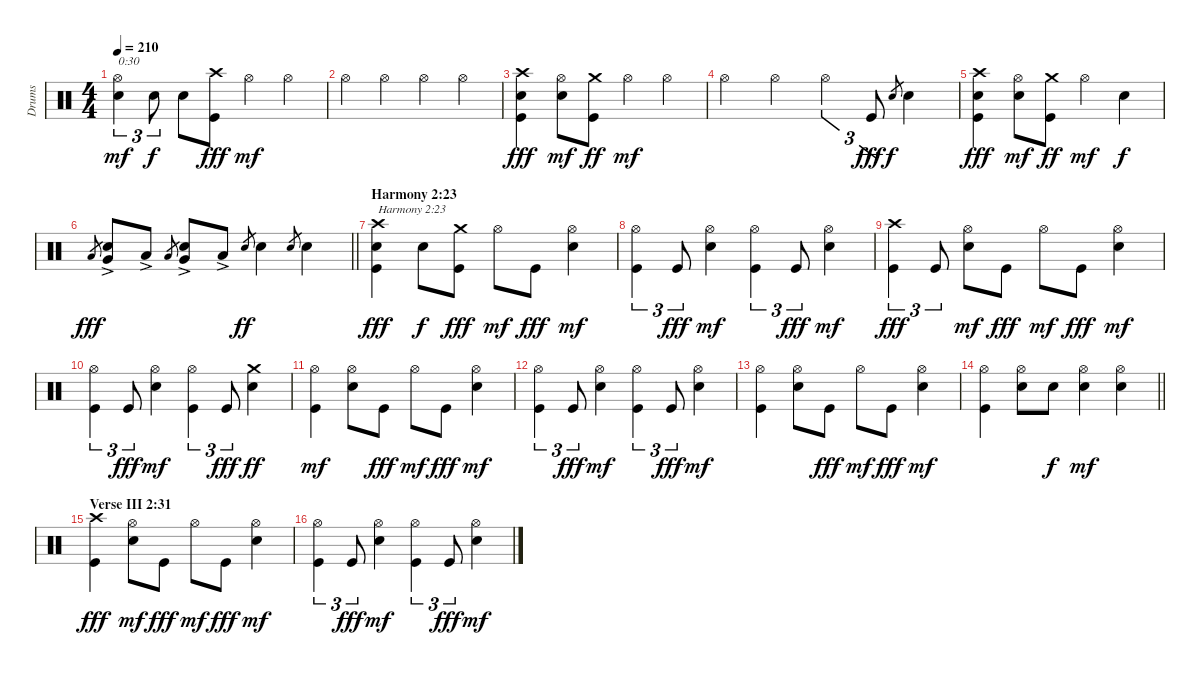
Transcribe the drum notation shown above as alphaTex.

\track ("Drums" "Drums") {instrument percussion}
\staff {score}
\articulation defaults
\ts (4 4)
\tempo 210
\clef neutral
\ks c
("Electric Snare (hit)" "Hi-Hat (open)").4{tu (3 2) txt "0:30" dy mf} "Electric Snare (hit)".8{tu (3 2) dy f} "Electric Snare (hit)".8 ("Kick (hit)" "Crash high (hit)").8{dy fff} "Hi-Hat (open)".4{dy mf} "Hi-Hat (open)".4 |
"Hi-Hat (open)".4 "Hi-Hat (open)".4 "Hi-Hat (open)".4 "Hi-Hat (open)".4 |
("Kick (hit)" "Electric Snare (hit)" "Crash high (hit)").4{dy fff} ("Electric Snare (hit)" "Hi-Hat (open)").8{dy mf} ("Kick (hit)" "Crash medium (hit)").8{dy ff} "Hi-Hat (open)".4{dy mf} "Hi-Hat (open)".4 |
"Hi-Hat (open)".4 "Hi-Hat (open)".4 "Hi-Hat (open)".4{tu (3 2)} "Kick (hit)".8{tu (3 2) dy fff} "Electric Snare (hit)".8{gr dy f} "Electric Snare (hit)".4 |
("Kick (hit)" "Electric Snare (hit)" "Crash high (hit)").4{dy fff} ("Electric Snare (hit)" "Hi-Hat (open)").8{dy mf} ("Kick (hit)" "Crash medium (hit)").8{dy ff} "Hi-Hat (open)".4{dy mf} "Electric Snare (hit)".4{dy f} |
\barLineRight lightlight "Low Tom (hit)".8{gr dy fff}
("Very Low Tom (hit)"{ac} "Electric Snare (hit)").8 "Low Tom (hit)"{ac}.8 "Low Tom (hit)".8{gr} ("Very Low Tom (hit)"{ac} "Electric Snare (hit)").8 "Low Tom (hit)"{ac}.8 "Electric Snare (hit)".8{gr dy ff} "Electric Snare (hit)".4 "Electric Snare (hit)".8{gr} "Electric Snare (hit)".4 |
\section ("" "Harmony 2:23")
("Kick (hit)" "Electric Snare (hit)" "Crash high (hit)").4{txt "Harmony 2:23" dy fff} "Electric Snare (hit)".8{dy f} ("Kick (hit)" "Crash medium (hit)").8{dy fff} "Hi-Hat (open)".8{dy mf} "Kick (hit)".8{dy fff} ("Electric Snare (hit)" "Hi-Hat (open)").4{dy mf} |
("Kick (hit)" "Hi-Hat (open)").4{tu (3 2)} "Kick (hit)".8{tu (3 2) dy fff} ("Electric Snare (hit)" "Hi-Hat (open)").4{dy mf} ("Kick (hit)" "Hi-Hat (open)").4{tu (3 2)} "Kick (hit)".8{tu (3 2) dy fff} ("Electric Snare (hit)" "Hi-Hat (open)").4{dy mf} |
("Kick (hit)" "Crash high (hit)").4{tu (3 2) dy fff} "Kick (hit)".8{tu (3 2)} ("Electric Snare (hit)" "Hi-Hat (open)").8{dy mf} "Kick (hit)".8{dy fff} "Hi-Hat (open)".8{dy mf} "Kick (hit)".8{dy fff} ("Electric Snare (hit)" "Hi-Hat (open)").4{dy mf} |
("Kick (hit)" "Hi-Hat (open)").4{tu (3 2)} "Kick (hit)".8{tu (3 2) dy fff} ("Electric Snare (hit)" "Hi-Hat (open)").4{dy mf} ("Kick (hit)" "Hi-Hat (open)").4{tu (3 2)} "Kick (hit)".8{tu (3 2) dy fff} ("Electric Snare (hit)" "Crash medium (hit)").4{dy ff} |
("Kick (hit)" "Hi-Hat (open)").4{dy mf} ("Electric Snare (hit)" "Hi-Hat (open)").8 "Kick (hit)".8{dy fff} "Hi-Hat (open)".8{dy mf} "Kick (hit)".8{dy fff} ("Electric Snare (hit)" "Hi-Hat (open)").4{dy mf} |
("Kick (hit)" "Hi-Hat (open)").4{tu (3 2)} "Kick (hit)".8{tu (3 2) dy fff} ("Electric Snare (hit)" "Hi-Hat (open)").4{dy mf} ("Kick (hit)" "Hi-Hat (open)").4{tu (3 2)} "Kick (hit)".8{tu (3 2) dy fff} ("Electric Snare (hit)" "Hi-Hat (open)").4{dy mf} |
("Kick (hit)" "Hi-Hat (open)").4 ("Electric Snare (hit)" "Hi-Hat (open)").8 "Kick (hit)".8{dy fff} "Hi-Hat (open)".8{dy mf} "Kick (hit)".8{dy fff} ("Electric Snare (hit)" "Hi-Hat (open)").4{dy mf} |
\barLineRight lightlight
("Kick (hit)" "Hi-Hat (open)").4 ("Electric Snare (hit)" "Hi-Hat (open)").8 "Electric Snare (hit)".8{dy f} ("Electric Snare (hit)" "Hi-Hat (open)").4{dy mf} ("Electric Snare (hit)" "Hi-Hat (open)").4 |
\section ("" "Verse III 2:31")
("Kick (hit)" "Crash high (hit)").4{dy fff} ("Electric Snare (hit)" "Hi-Hat (open)").8{dy mf} "Kick (hit)".8{dy fff} "Hi-Hat (open)".8{dy mf} "Kick (hit)".8{dy fff} ("Electric Snare (hit)" "Hi-Hat (open)").4{dy mf} |
("Kick (hit)" "Hi-Hat (open)").4{tu (3 2)} "Kick (hit)".8{tu (3 2) dy fff} ("Electric Snare (hit)" "Hi-Hat (open)").4{dy mf} ("Kick (hit)" "Hi-Hat (open)").4{tu (3 2)} "Kick (hit)".8{tu (3 2) dy fff} ("Electric Snare (hit)" "Hi-Hat (open)").4{dy mf}
